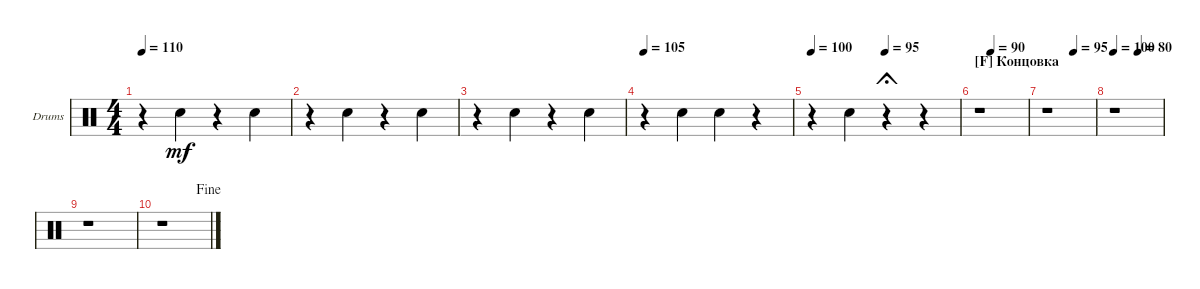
\defaultSystemsLayout 4
\bracketExtendMode groupsimilarinstruments
\firstSystemTrackNameOrientation horizontal
\otherSystemsTrackNameOrientation horizontal
\track ("Drumkit" "Drums") {instrument percussion}
\staff {score}
\articulation defaults
\ts (4 4)
\tempo 110
\clef neutral
\ks c
r.4{dy mf} "Snare (hit) 2".4 r.4 "Snare (hit) 2".4 |
r.4 "Snare (hit) 2".4 r.4 "Snare (hit) 2".4 |
r.4 "Snare (hit) 2".4 r.4 "Snare (hit) 2".4 |
\tempo 105
r.4 "Snare (hit) 2".4 "Snare (hit) 2".4 r.4 |
\tempo 100
\tempo (95 0.5)
r.4 "Snare (hit) 2".4 r.4{fermata (short 0)} r.4 |
\section ("F" "Концовка")
\tempo (90 0.25)
r.1 |
\tempo (95 0.5625)
r.1 |
\tempo 100
\tempo (80 0.5)
r.1 |
r.1 |
\jump fine
r.1
